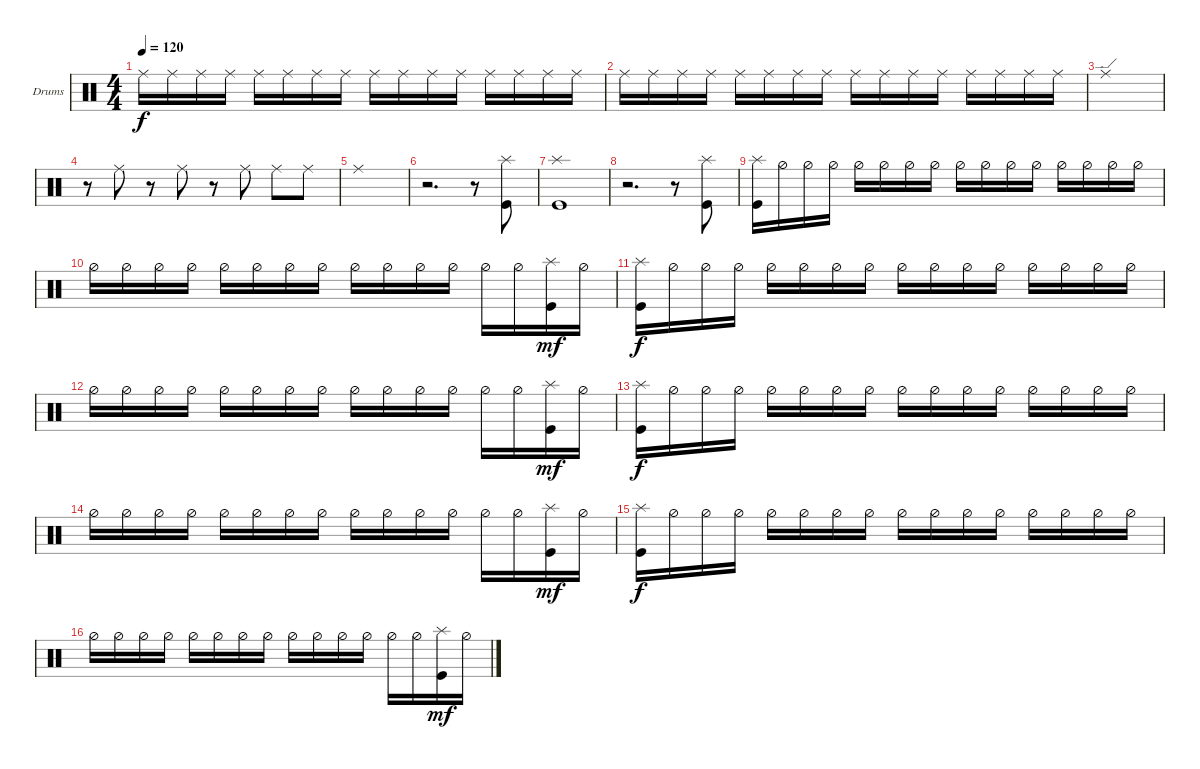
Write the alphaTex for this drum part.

\bracketExtendMode groupsimilarinstruments
\firstSystemTrackNameOrientation horizontal
\otherSystemsTrackNameOrientation horizontal
\track ("Drumkit" "Drums") {instrument percussion}
\staff {score}
\articulation defaults
\ts (4 4)
\tempo 120
\clef neutral
\scale
0.333333
\ks c "Ride (middle)".16{dy f} "Ride (middle)".16 "Ride (middle)".16 "Ride (middle)".16 "Ride (middle)".16 "Ride (middle)".16 "Ride (middle)".16 "Ride (middle)".16 "Ride (middle)".16 "Ride (middle)".16 "Ride (middle)".16 "Ride (middle)".16 "Ride (middle)".16 "Ride (middle)".16 "Ride (middle)".16 "Ride (middle)".16
|
\scale
0.333333 "Ride (middle)".16 "Ride (middle)".16 "Ride (middle)".16 "Ride (middle)".16 "Ride (middle)".16 "Ride (middle)".16 "Ride (middle)".16 "Ride (middle)".16 "Ride (middle)".16 "Ride (middle)".16 "Ride (middle)".16 "Ride (middle)".16 "Ride (middle)".16 "Ride (middle)".16 "Ride (middle)".16 "Ride (middle)".16 |
\scale
0.333333 "Ride (edge)".1 |
\scale
0.333333 r.8 "Ride (middle)".8 r.8 "Ride (middle)".8 r.8 "Ride (middle)".8 "Ride (middle)".8 "Ride (middle)".8 |
\scale
0.333333 "Ride (middle)".1 |
\scale
0.333333 r.2{d} r.8 ("Kick (hit)" "Splash (hit)").8 |
\scale
0.333333 ("Splash (hit)" "Kick (hit)").1 |
\scale
0.333333 r.2{d} r.8 ("Kick (hit)" "Splash (hit)").8 |
\scale
0.333333 ("Splash (hit)" "Kick (hit)").16 "Hi-Hat (half)".16 "Hi-Hat (half)".16 "Hi-Hat (half)".16 "Hi-Hat (half)".16 "Hi-Hat (half)".16 "Hi-Hat (half)".16 "Hi-Hat (half)".16 "Hi-Hat (half)".16 "Hi-Hat (half)".16 "Hi-Hat (half)".16 "Hi-Hat (half)".16 "Hi-Hat (half)".16 "Hi-Hat (half)".16 "Hi-Hat (half)".16 "Hi-Hat (half)".16 |
\scale
0.333333 "Hi-Hat (half)".16 "Hi-Hat (half)".16 "Hi-Hat (half)".16 "Hi-Hat (half)".16 "Hi-Hat (half)".16 "Hi-Hat (half)".16 "Hi-Hat (half)".16 "Hi-Hat (half)".16 "Hi-Hat (half)".16 "Hi-Hat (half)".16 "Hi-Hat (half)".16 "Hi-Hat (half)".16 "Hi-Hat (half)".16 "Hi-Hat (half)".16 ("Kick (hit)" "Splash (hit)").16{dy mf} "Hi-Hat (half)".16 |
\scale
0.333333 ("Splash (hit)" "Kick (hit)").16{dy f} "Hi-Hat (half)".16 "Hi-Hat (half)".16 "Hi-Hat (half)".16 "Hi-Hat (half)".16 "Hi-Hat (half)".16 "Hi-Hat (half)".16 "Hi-Hat (half)".16 "Hi-Hat (half)".16 "Hi-Hat (half)".16 "Hi-Hat (half)".16 "Hi-Hat (half)".16 "Hi-Hat (half)".16 "Hi-Hat (half)".16 "Hi-Hat (half)".16 "Hi-Hat (half)".16 |
\scale
0.333333 "Hi-Hat (half)".16 "Hi-Hat (half)".16 "Hi-Hat (half)".16 "Hi-Hat (half)".16 "Hi-Hat (half)".16 "Hi-Hat (half)".16 "Hi-Hat (half)".16 "Hi-Hat (half)".16 "Hi-Hat (half)".16 "Hi-Hat (half)".16 "Hi-Hat (half)".16 "Hi-Hat (half)".16 "Hi-Hat (half)".16 "Hi-Hat (half)".16 ("Kick (hit)" "Splash (hit)").16{dy mf} "Hi-Hat (half)".16 |
\scale
0.333333 ("Splash (hit)" "Kick (hit)").16{dy f} "Hi-Hat (half)".16 "Hi-Hat (half)".16 "Hi-Hat (half)".16 "Hi-Hat (half)".16 "Hi-Hat (half)".16 "Hi-Hat (half)".16 "Hi-Hat (half)".16 "Hi-Hat (half)".16 "Hi-Hat (half)".16 "Hi-Hat (half)".16 "Hi-Hat (half)".16 "Hi-Hat (half)".16 "Hi-Hat (half)".16 "Hi-Hat (half)".16 "Hi-Hat (half)".16 |
\scale
0.333333 "Hi-Hat (half)".16 "Hi-Hat (half)".16 "Hi-Hat (half)".16 "Hi-Hat (half)".16 "Hi-Hat (half)".16 "Hi-Hat (half)".16 "Hi-Hat (half)".16 "Hi-Hat (half)".16 "Hi-Hat (half)".16 "Hi-Hat (half)".16 "Hi-Hat (half)".16 "Hi-Hat (half)".16 "Hi-Hat (half)".16 "Hi-Hat (half)".16 ("Kick (hit)" "Splash (hit)").16{dy mf} "Hi-Hat (half)".16 |
\scale
0.333333 ("Splash (hit)" "Kick (hit)").16{dy f} "Hi-Hat (half)".16 "Hi-Hat (half)".16 "Hi-Hat (half)".16 "Hi-Hat (half)".16 "Hi-Hat (half)".16 "Hi-Hat (half)".16 "Hi-Hat (half)".16 "Hi-Hat (half)".16 "Hi-Hat (half)".16 "Hi-Hat (half)".16 "Hi-Hat (half)".16 "Hi-Hat (half)".16 "Hi-Hat (half)".16 "Hi-Hat (half)".16 "Hi-Hat (half)".16 |
\scale
0.333333 "Hi-Hat (half)".16 "Hi-Hat (half)".16 "Hi-Hat (half)".16 "Hi-Hat (half)".16 "Hi-Hat (half)".16 "Hi-Hat (half)".16 "Hi-Hat (half)".16 "Hi-Hat (half)".16 "Hi-Hat (half)".16 "Hi-Hat (half)".16 "Hi-Hat (half)".16 "Hi-Hat (half)".16 "Hi-Hat (half)".16 "Hi-Hat (half)".16 ("Kick (hit)" "Splash (hit)").16{dy mf} "Hi-Hat (half)".16
